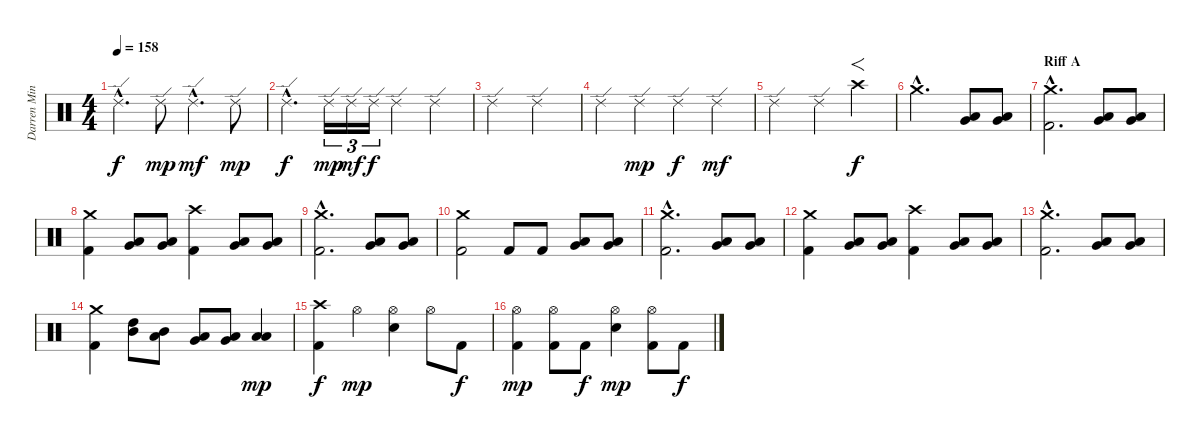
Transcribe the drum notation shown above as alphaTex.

\track ("Darren Minter" "Darren Min") {instrument percussion}
\staff {score}
\articulation defaults
\ts (4 4)
\tempo 158
\clef neutral
\ks c "Ride (edge) 2"{hac}.4{d dy f} "Ride (edge) 2".8{dy mp} "Ride (edge) 2"{hac}.4{d dy mf} "Ride (edge) 2".8{dy mp}
|
"Ride (edge) 2"{hac}.4{d dy f} "Ride (edge) 2".16{tu (3 2) dy mp} "Ride (edge) 2".16{tu (3 2) dy mf} "Ride (edge) 2".16{tu (3 2) dy f} "Ride (edge) 2".4 "Ride (edge) 2".4 |
"Ride (edge) 2".2 "Ride (edge) 2".2 |
"Ride (edge) 2".4 "Ride (edge) 2".4{dy mp} "Ride (edge) 2".4{dy f} "Ride (edge) 2".4{dy mf} |
"Ride (edge) 2".2 "Ride (edge) 2".4 "Crash high (hit)".4{f dy f} |
"Crash medium (hit)"{hac}.2{d} ("Low Tom (hit)" "Very Low Tom (hit)").8 ("Low Tom (hit)" "Very Low Tom (hit)").8 |
\section ("" "Riff A")
("Kick (hit) 2"{hac} "Crash medium (hit)"{hac}).2{d} ("Low Tom (hit)" "Very Low Tom (hit)").8 ("Low Tom (hit)" "Very Low Tom (hit)").8 |
("Kick (hit) 2" "Crash medium (hit)").4 ("Low Tom (hit)" "Very Low Tom (hit)").8 ("Low Tom (hit)" "Very Low Tom (hit)").8 ("Kick (hit) 2" "Crash high (hit)").4 ("Low Tom (hit)" "Very Low Tom (hit)").8 ("Low Tom (hit)" "Very Low Tom (hit)").8 |
("Kick (hit) 2"{hac} "Crash medium (hit)"{hac}).2{d} ("Low Tom (hit)" "Very Low Tom (hit)").8 ("Low Tom (hit)" "Very Low Tom (hit)").8 |
("Kick (hit) 2" "Crash medium (hit)").2 "Kick (hit) 2".8 "Kick (hit) 2".8 ("Low Tom (hit)" "Very Low Tom (hit)").8 ("Low Tom (hit)" "Very Low Tom (hit)").8 |
("Kick (hit) 2"{hac} "Crash medium (hit)"{hac}).2{d} ("Low Tom (hit)" "Very Low Tom (hit)").8 ("Low Tom (hit)" "Very Low Tom (hit)").8 |
("Kick (hit) 2" "Crash medium (hit)").4 ("Low Tom (hit)" "Very Low Tom (hit)").8 ("Low Tom (hit)" "Very Low Tom (hit)").8 ("Kick (hit) 2" "Crash high (hit)").4 ("Low Tom (hit)" "Very Low Tom (hit)").8 ("Low Tom (hit)" "Very Low Tom (hit)").8 |
("Kick (hit) 2"{hac} "Crash medium (hit)"{hac}).2{d} ("Low Tom (hit)" "Very Low Tom (hit)").8 ("Low Tom (hit)" "Very Low Tom (hit)").8 |
("Kick (hit) 2" "Crash medium (hit)").4 ("High Tom (hit)" "Mid Tom (hit)").8 ("Mid Tom (hit)" "Low Tom (hit)").8 ("Low Tom (hit)" "Very Low Tom (hit)").8 ("Very Low Tom (hit)" "Low Floor Tom (hit)").8 ("Low Floor Tom (hit)" "Low Floor Tom (hit)").4{dy mp} |
("Kick (hit) 2" "Crash high (hit)").4{dy f} "Hi-Hat (open)".4{dy mp} ("Hi-Hat (open)" "Snare (hit) 2").4 "Hi-Hat (open)".8 "Kick (hit) 2".8{dy f} |
("Kick (hit) 2" "Hi-Hat (open)").4{dy mp} ("Kick (hit) 2" "Hi-Hat (open)").8 "Kick (hit) 2".8{dy f} ("Hi-Hat (open)" "Snare (hit) 2").4{dy mp} ("Kick (hit) 2" "Hi-Hat (open)").8 "Kick (hit) 2".8{dy f}
